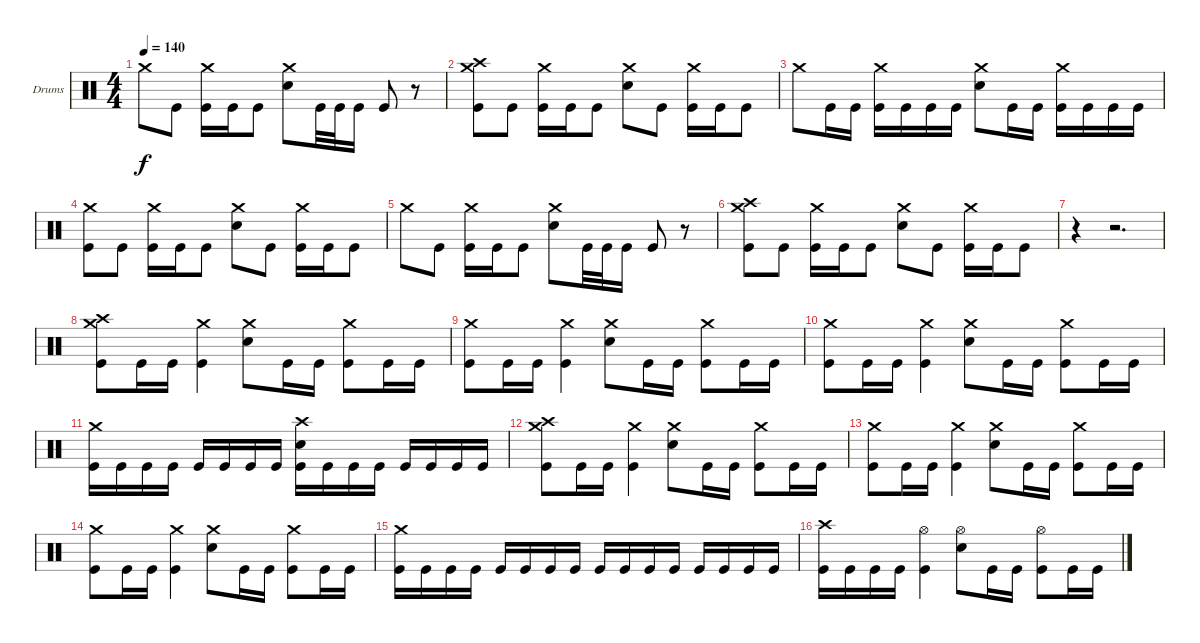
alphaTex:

\bracketExtendMode groupsimilarinstruments
\firstSystemTrackNameOrientation horizontal
\otherSystemsTrackNameOrientation horizontal
\track ("Drumkit" "Drums") {instrument percussion}
\staff {score}
\articulation defaults
\ts (4 4)
\tempo 140
\clef neutral
\ks c "Crash medium (hit)".8{dy f} "Kick (hit)".8
("Crash medium (hit)" "Kick (hit)").16 "Kick (hit)".16 "Kick (hit)".8 ("Crash medium (hit)" "Snare (hit) 2").8 "Kick (hit)".32 "Kick (hit)".32 "Kick (hit)".16 "Kick (hit)".8 r.8 |
("Crash medium (hit)" "Crash high (hit)" "Kick (hit)").8 "Kick (hit)".8 ("Crash medium (hit)" "Kick (hit)").16 "Kick (hit)".16 "Kick (hit)".8 ("Crash medium (hit)" "Snare (hit) 2").8 "Kick (hit)".8 ("Crash medium (hit)" "Kick (hit)").16 "Kick (hit)".16 "Kick (hit)".8 |
"Crash medium (hit)".8 "Kick (hit)".16 "Kick (hit)".16 ("Crash medium (hit)" "Kick (hit)").16 "Kick (hit)".16 "Kick (hit)".16 "Kick (hit)".16 ("Crash medium (hit)" "Snare (hit) 2").8 "Kick (hit)".16 "Kick (hit)".16 ("Crash medium (hit)" "Kick (hit)").16 "Kick (hit)".16 "Kick (hit)".16 "Kick (hit)".16 |
("Crash medium (hit)" "Kick (hit)").8 "Kick (hit)".8 ("Crash medium (hit)" "Kick (hit)").16 "Kick (hit)".16 "Kick (hit)".8 ("Crash medium (hit)" "Snare (hit) 2").8 "Kick (hit)".8 ("Crash medium (hit)" "Kick (hit)").16 "Kick (hit)".16 "Kick (hit)".8 |
"Crash medium (hit)".8 "Kick (hit)".8 ("Crash medium (hit)" "Kick (hit)").16 "Kick (hit)".16 "Kick (hit)".8 ("Crash medium (hit)" "Snare (hit) 2").8 "Kick (hit)".32 "Kick (hit)".32 "Kick (hit)".16 "Kick (hit)".8 r.8 |
("Crash medium (hit)" "Crash high (hit)" "Kick (hit)").8 "Kick (hit)".8 ("Crash medium (hit)" "Kick (hit)").16 "Kick (hit)".16 "Kick (hit)".8 ("Crash medium (hit)" "Snare (hit) 2").8 "Kick (hit)".8 ("Crash medium (hit)" "Kick (hit)").16 "Kick (hit)".16 "Kick (hit)".8 |
r.4 r.2{d} |
("Crash medium (hit)" "Crash high (hit)" "Kick (hit)").8 "Kick (hit)".16 "Kick (hit)".16 ("Crash medium (hit)" "Kick (hit)").4 ("Crash medium (hit)" "Snare (hit) 2").8 "Kick (hit)".16 "Kick (hit)".16 ("Crash medium (hit)" "Kick (hit)").8 "Kick (hit)".16 "Kick (hit)".16 |
("Crash medium (hit)" "Kick (hit)").8 "Kick (hit)".16 "Kick (hit)".16 ("Crash medium (hit)" "Kick (hit)").4 ("Crash medium (hit)" "Snare (hit) 2").8 "Kick (hit)".16 "Kick (hit)".16 ("Crash medium (hit)" "Kick (hit)").8 "Kick (hit)".16 "Kick (hit)".16 |
("Crash medium (hit)" "Kick (hit)").8 "Kick (hit)".16 "Kick (hit)".16 ("Crash medium (hit)" "Kick (hit)").4 ("Crash medium (hit)" "Snare (hit) 2").8 "Kick (hit)".16 "Kick (hit)".16 ("Crash medium (hit)" "Kick (hit)").8 "Kick (hit)".16 "Kick (hit)".16 |
("Crash medium (hit)" "Kick (hit)").16 "Kick (hit)".16 "Kick (hit)".16 "Kick (hit)".16 "Kick (hit)".16 "Kick (hit)".16 "Kick (hit)".16 "Kick (hit)".16 ("Crash high (hit)" "Snare (hit) 2" "Kick (hit)").16 "Kick (hit)".16 "Kick (hit)".16 "Kick (hit)".16 "Kick (hit)".16 "Kick (hit)".16 "Kick (hit)".16 "Kick (hit)".16 |
("Crash medium (hit)" "Crash high (hit)" "Kick (hit)").8 "Kick (hit)".16 "Kick (hit)".16 ("Crash medium (hit)" "Kick (hit)").4 ("Crash medium (hit)" "Snare (hit) 2").8 "Kick (hit)".16 "Kick (hit)".16 ("Crash medium (hit)" "Kick (hit)").8 "Kick (hit)".16 "Kick (hit)".16 |
("Crash medium (hit)" "Kick (hit)").8 "Kick (hit)".16 "Kick (hit)".16 ("Crash medium (hit)" "Kick (hit)").4 ("Crash medium (hit)" "Snare (hit) 2").8 "Kick (hit)".16 "Kick (hit)".16 ("Crash medium (hit)" "Kick (hit)").8 "Kick (hit)".16 "Kick (hit)".16 |
("Crash medium (hit)" "Kick (hit)").8 "Kick (hit)".16 "Kick (hit)".16 ("Crash medium (hit)" "Kick (hit)").4 ("Crash medium (hit)" "Snare (hit) 2").8 "Kick (hit)".16 "Kick (hit)".16 ("Crash medium (hit)" "Kick (hit)").8 "Kick (hit)".16 "Kick (hit)".16 |
("Crash medium (hit)" "Kick (hit)").16 "Kick (hit)".16 "Kick (hit)".16 "Kick (hit)".16 "Kick (hit)".16 "Kick (hit)".16 "Kick (hit)".16 "Kick (hit)".16 "Kick (hit)".16 "Kick (hit)".16 "Kick (hit)".16 "Kick (hit)".16 "Kick (hit)".16 "Kick (hit)".16 "Kick (hit)".16 "Kick (hit)".16 |
("Crash high (hit)" "Kick (hit)").16 "Kick (hit)".16 "Kick (hit)".16 "Kick (hit)".16 ("Hi-Hat (open)" "Kick (hit)").4 ("Hi-Hat (open)" "Snare (hit) 2").8 "Kick (hit)".16 "Kick (hit)".16 ("Hi-Hat (open)" "Kick (hit)").8 "Kick (hit)".16 "Kick (hit)".16
